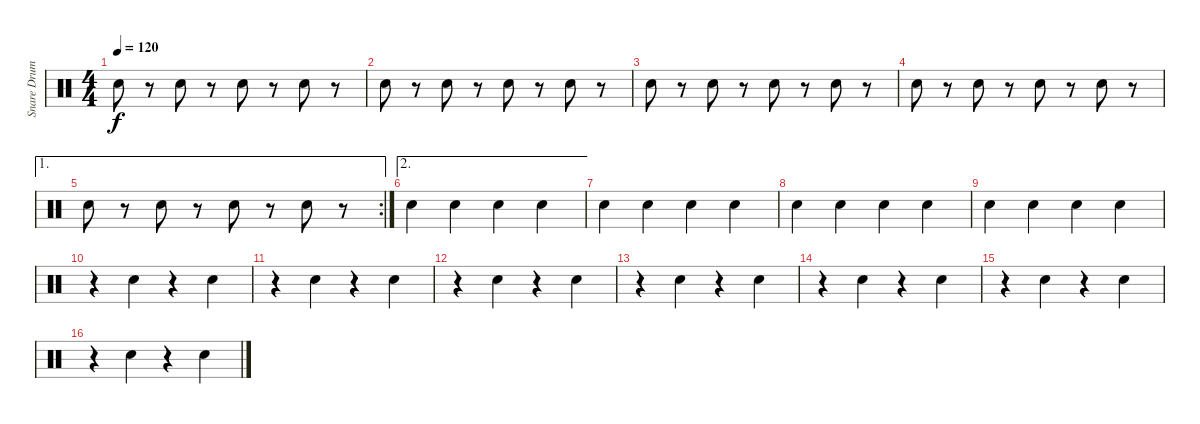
\track ("Snare Drum" "Snare Drum") {instrument percussion}
\staff {score}
\articulation defaults
\ts (4 4)
\tempo 120
\clef neutral
\ks c "Electric Snare (hit)".8{dy f}
r.8 "Electric Snare (hit)".8 r.8 "Electric Snare (hit)".8 r.8 "Electric Snare (hit)".8 r.8 |
"Electric Snare (hit)".8 r.8 "Electric Snare (hit)".8 r.8 "Electric Snare (hit)".8 r.8 "Electric Snare (hit)".8 r.8 |
"Electric Snare (hit)".8 r.8 "Electric Snare (hit)".8 r.8 "Electric Snare (hit)".8 r.8 "Electric Snare (hit)".8 r.8 |
"Electric Snare (hit)".8 r.8 "Electric Snare (hit)".8 r.8 "Electric Snare (hit)".8 r.8 "Electric Snare (hit)".8 r.8 |
\ae 1
\rc 2 "Electric Snare (hit)".8
r.8 "Electric Snare (hit)".8 r.8 "Electric Snare (hit)".8 r.8 "Electric Snare (hit)".8 r.8 |
\ae 2 "Hand Clap (hit)".4 "Hand Clap (hit)".4 "Hand Clap (hit)".4 "Hand Clap (hit)".4
|
"Hand Clap (hit)".4 "Hand Clap (hit)".4 "Hand Clap (hit)".4 "Hand Clap (hit)".4 |
"Hand Clap (hit)".4 "Hand Clap (hit)".4 "Hand Clap (hit)".4 "Hand Clap (hit)".4 |
"Hand Clap (hit)".4 "Hand Clap (hit)".4 "Hand Clap (hit)".4 "Hand Clap (hit)".4 |
r.4 "Snare (hit) 2".4 r.4 "Snare (hit) 2".4 |
r.4 "Snare (hit) 2".4 r.4 "Snare (hit) 2".4 |
r.4 "Snare (hit) 2".4 r.4 "Snare (hit) 2".4 |
r.4 "Snare (hit) 2".4 r.4 "Snare (hit) 2".4 |
r.4 "Snare (hit) 2".4 r.4 "Snare (hit) 2".4 |
r.4 "Snare (hit) 2".4 r.4 "Snare (hit) 2".4 |
r.4 "Snare (hit) 2".4 r.4 "Snare (hit) 2".4
